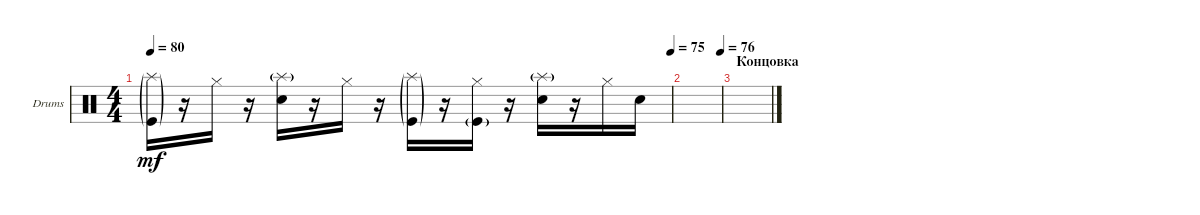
\defaultSystemsLayout 4
\bracketExtendMode groupsimilarinstruments
\firstSystemTrackNameOrientation horizontal
\otherSystemsTrackNameOrientation horizontal
\track ("Drumkit" "Drums") {instrument percussion}
\staff {score}
\articulation defaults
\ts (4 4)
\tempo 80
\tempo (75 1)
\clef neutral
\ks c
("Kick (hit)"{g} "Splash (hit)"{g}).16{dy mf} r.16 "Hi-Hat (closed)".16 r.16 ("Snare (hit) 2" "Splash (hit)"{g}).16 r.16 "Hi-Hat (closed)".16 r.16 ("Kick (hit)"{g} "Splash (hit)"{g}).16 r.16 ("Kick (hit)"{g} "Hi-Hat (closed)").16 r.16 ("Snare (hit) 2" "Splash (hit)"{g}).16 r.16 "Hi-Hat (closed)".16 "Snare (hit) 2".16 |
\tempo (76 0.99375)
|
\section ("" "Концовка")
